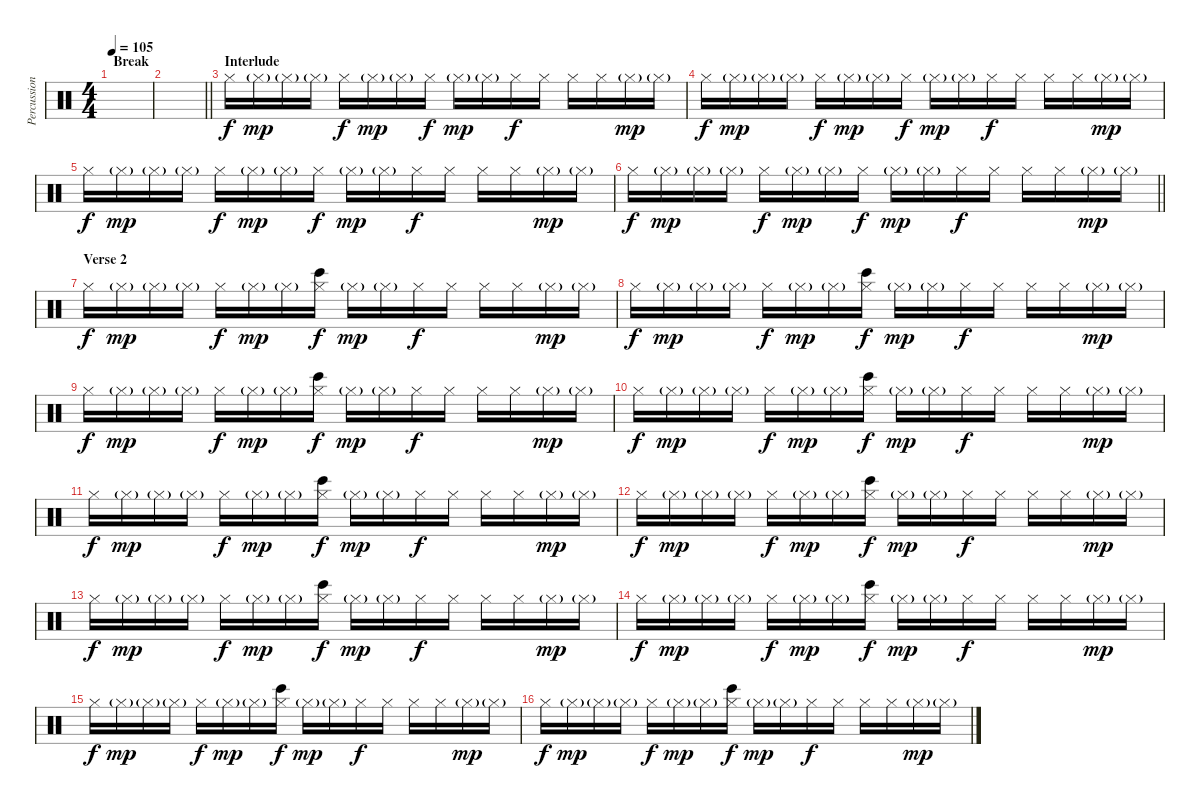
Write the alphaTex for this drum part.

\track ("Percussions and Arrangements" "Percussion") {instrument percussion}
\staff {score}
\articulation defaults
\ts (4 4)
\section ("" "Break")
\tempo 105
\clef neutral
\ks c
|
\barLineRight lightlight
|
\section ("" "Interlude")
"Hi-Hat (closed)".16{dy f} "Hi-Hat (closed)"{g}.16{dy mp} "Hi-Hat (closed)"{g}.16 "Hi-Hat (closed)"{g}.16 "Hi-Hat (closed)".16{dy f} "Hi-Hat (closed)"{g}.16{dy mp} "Hi-Hat (closed)"{g}.16 "Hi-Hat (closed)".16{dy f} "Hi-Hat (closed)"{g}.16{dy mp} "Hi-Hat (closed)"{g}.16 "Hi-Hat (closed)".16{dy f} "Hi-Hat (closed)".16 "Hi-Hat (closed)".16 "Hi-Hat (closed)".16 "Hi-Hat (closed)"{g}.16{dy mp} "Hi-Hat (closed)"{g}.16 |
"Hi-Hat (closed)".16{dy f} "Hi-Hat (closed)"{g}.16{dy mp} "Hi-Hat (closed)"{g}.16 "Hi-Hat (closed)"{g}.16 "Hi-Hat (closed)".16{dy f} "Hi-Hat (closed)"{g}.16{dy mp} "Hi-Hat (closed)"{g}.16 "Hi-Hat (closed)".16{dy f} "Hi-Hat (closed)"{g}.16{dy mp} "Hi-Hat (closed)"{g}.16 "Hi-Hat (closed)".16{dy f} "Hi-Hat (closed)".16 "Hi-Hat (closed)".16 "Hi-Hat (closed)".16 "Hi-Hat (closed)"{g}.16{dy mp} "Hi-Hat (closed)"{g}.16 |
"Hi-Hat (closed)".16{dy f} "Hi-Hat (closed)"{g}.16{dy mp} "Hi-Hat (closed)"{g}.16 "Hi-Hat (closed)"{g}.16 "Hi-Hat (closed)".16{dy f} "Hi-Hat (closed)"{g}.16{dy mp} "Hi-Hat (closed)"{g}.16 "Hi-Hat (closed)".16{dy f} "Hi-Hat (closed)"{g}.16{dy mp} "Hi-Hat (closed)"{g}.16 "Hi-Hat (closed)".16{dy f} "Hi-Hat (closed)".16 "Hi-Hat (closed)".16 "Hi-Hat (closed)".16 "Hi-Hat (closed)"{g}.16{dy mp} "Hi-Hat (closed)"{g}.16 |
\barLineRight lightlight "Hi-Hat (closed)".16{dy f} "Hi-Hat (closed)"{g}.16{dy mp} "Hi-Hat (closed)"{g}.16 "Hi-Hat (closed)"{g}.16 "Hi-Hat (closed)".16{dy f} "Hi-Hat (closed)"{g}.16{dy mp} "Hi-Hat (closed)"{g}.16 "Hi-Hat (closed)".16{dy f} "Hi-Hat (closed)"{g}.16{dy mp} "Hi-Hat (closed)"{g}.16 "Hi-Hat (closed)".16{dy f} "Hi-Hat (closed)".16 "Hi-Hat (closed)".16 "Hi-Hat (closed)".16 "Hi-Hat (closed)"{g}.16{dy mp} "Hi-Hat (closed)"{g}.16
|
\section ("" "Verse 2")
"Hi-Hat (closed)".16{dy f} "Hi-Hat (closed)"{g}.16{dy mp} "Hi-Hat (closed)"{g}.16 "Hi-Hat (closed)"{g}.16 "Hi-Hat (closed)".16{dy f} "Hi-Hat (closed)"{g}.16{dy mp} "Hi-Hat (closed)"{g}.16 ("Hi-Hat (closed)" "Bongo High (hit)").16{dy f} "Hi-Hat (closed)"{g}.16{dy mp} "Hi-Hat (closed)"{g}.16 "Hi-Hat (closed)".16{dy f} "Hi-Hat (closed)".16 "Hi-Hat (closed)".16 "Hi-Hat (closed)".16 "Hi-Hat (closed)"{g}.16{dy mp} "Hi-Hat (closed)"{g}.16 |
"Hi-Hat (closed)".16{dy f} "Hi-Hat (closed)"{g}.16{dy mp} "Hi-Hat (closed)"{g}.16 "Hi-Hat (closed)"{g}.16 "Hi-Hat (closed)".16{dy f} "Hi-Hat (closed)"{g}.16{dy mp} "Hi-Hat (closed)"{g}.16 ("Hi-Hat (closed)" "Bongo High (hit)").16{dy f} "Hi-Hat (closed)"{g}.16{dy mp} "Hi-Hat (closed)"{g}.16 "Hi-Hat (closed)".16{dy f} "Hi-Hat (closed)".16 "Hi-Hat (closed)".16 "Hi-Hat (closed)".16 "Hi-Hat (closed)"{g}.16{dy mp} "Hi-Hat (closed)"{g}.16 |
"Hi-Hat (closed)".16{dy f} "Hi-Hat (closed)"{g}.16{dy mp} "Hi-Hat (closed)"{g}.16 "Hi-Hat (closed)"{g}.16 "Hi-Hat (closed)".16{dy f} "Hi-Hat (closed)"{g}.16{dy mp} "Hi-Hat (closed)"{g}.16 ("Hi-Hat (closed)" "Bongo High (hit)").16{dy f} "Hi-Hat (closed)"{g}.16{dy mp} "Hi-Hat (closed)"{g}.16 "Hi-Hat (closed)".16{dy f} "Hi-Hat (closed)".16 "Hi-Hat (closed)".16 "Hi-Hat (closed)".16 "Hi-Hat (closed)"{g}.16{dy mp} "Hi-Hat (closed)"{g}.16 |
"Hi-Hat (closed)".16{dy f} "Hi-Hat (closed)"{g}.16{dy mp} "Hi-Hat (closed)"{g}.16 "Hi-Hat (closed)"{g}.16 "Hi-Hat (closed)".16{dy f} "Hi-Hat (closed)"{g}.16{dy mp} "Hi-Hat (closed)"{g}.16 ("Hi-Hat (closed)" "Bongo High (hit)").16{dy f} "Hi-Hat (closed)"{g}.16{dy mp} "Hi-Hat (closed)"{g}.16 "Hi-Hat (closed)".16{dy f} "Hi-Hat (closed)".16 "Hi-Hat (closed)".16 "Hi-Hat (closed)".16 "Hi-Hat (closed)"{g}.16{dy mp} "Hi-Hat (closed)"{g}.16 |
"Hi-Hat (closed)".16{dy f} "Hi-Hat (closed)"{g}.16{dy mp} "Hi-Hat (closed)"{g}.16 "Hi-Hat (closed)"{g}.16 "Hi-Hat (closed)".16{dy f} "Hi-Hat (closed)"{g}.16{dy mp} "Hi-Hat (closed)"{g}.16 ("Hi-Hat (closed)" "Bongo High (hit)").16{dy f} "Hi-Hat (closed)"{g}.16{dy mp} "Hi-Hat (closed)"{g}.16 "Hi-Hat (closed)".16{dy f} "Hi-Hat (closed)".16 "Hi-Hat (closed)".16 "Hi-Hat (closed)".16 "Hi-Hat (closed)"{g}.16{dy mp} "Hi-Hat (closed)"{g}.16 |
"Hi-Hat (closed)".16{dy f} "Hi-Hat (closed)"{g}.16{dy mp} "Hi-Hat (closed)"{g}.16 "Hi-Hat (closed)"{g}.16 "Hi-Hat (closed)".16{dy f} "Hi-Hat (closed)"{g}.16{dy mp} "Hi-Hat (closed)"{g}.16 ("Hi-Hat (closed)" "Bongo High (hit)").16{dy f} "Hi-Hat (closed)"{g}.16{dy mp} "Hi-Hat (closed)"{g}.16 "Hi-Hat (closed)".16{dy f} "Hi-Hat (closed)".16 "Hi-Hat (closed)".16 "Hi-Hat (closed)".16 "Hi-Hat (closed)"{g}.16{dy mp} "Hi-Hat (closed)"{g}.16 |
"Hi-Hat (closed)".16{dy f} "Hi-Hat (closed)"{g}.16{dy mp} "Hi-Hat (closed)"{g}.16 "Hi-Hat (closed)"{g}.16 "Hi-Hat (closed)".16{dy f} "Hi-Hat (closed)"{g}.16{dy mp} "Hi-Hat (closed)"{g}.16 ("Hi-Hat (closed)" "Bongo High (hit)").16{dy f} "Hi-Hat (closed)"{g}.16{dy mp} "Hi-Hat (closed)"{g}.16 "Hi-Hat (closed)".16{dy f} "Hi-Hat (closed)".16 "Hi-Hat (closed)".16 "Hi-Hat (closed)".16 "Hi-Hat (closed)"{g}.16{dy mp} "Hi-Hat (closed)"{g}.16 |
"Hi-Hat (closed)".16{dy f} "Hi-Hat (closed)"{g}.16{dy mp} "Hi-Hat (closed)"{g}.16 "Hi-Hat (closed)"{g}.16 "Hi-Hat (closed)".16{dy f} "Hi-Hat (closed)"{g}.16{dy mp} "Hi-Hat (closed)"{g}.16 ("Hi-Hat (closed)" "Bongo High (hit)").16{dy f} "Hi-Hat (closed)"{g}.16{dy mp} "Hi-Hat (closed)"{g}.16 "Hi-Hat (closed)".16{dy f} "Hi-Hat (closed)".16 "Hi-Hat (closed)".16 "Hi-Hat (closed)".16 "Hi-Hat (closed)"{g}.16{dy mp} "Hi-Hat (closed)"{g}.16 |
"Hi-Hat (closed)".16{dy f} "Hi-Hat (closed)"{g}.16{dy mp} "Hi-Hat (closed)"{g}.16 "Hi-Hat (closed)"{g}.16 "Hi-Hat (closed)".16{dy f} "Hi-Hat (closed)"{g}.16{dy mp} "Hi-Hat (closed)"{g}.16 ("Hi-Hat (closed)" "Bongo High (hit)").16{dy f} "Hi-Hat (closed)"{g}.16{dy mp} "Hi-Hat (closed)"{g}.16 "Hi-Hat (closed)".16{dy f} "Hi-Hat (closed)".16 "Hi-Hat (closed)".16 "Hi-Hat (closed)".16 "Hi-Hat (closed)"{g}.16{dy mp} "Hi-Hat (closed)"{g}.16 |
"Hi-Hat (closed)".16{dy f} "Hi-Hat (closed)"{g}.16{dy mp} "Hi-Hat (closed)"{g}.16 "Hi-Hat (closed)"{g}.16 "Hi-Hat (closed)".16{dy f} "Hi-Hat (closed)"{g}.16{dy mp} "Hi-Hat (closed)"{g}.16 ("Hi-Hat (closed)" "Bongo High (hit)").16{dy f} "Hi-Hat (closed)"{g}.16{dy mp} "Hi-Hat (closed)"{g}.16 "Hi-Hat (closed)".16{dy f} "Hi-Hat (closed)".16 "Hi-Hat (closed)".16 "Hi-Hat (closed)".16 "Hi-Hat (closed)"{g}.16{dy mp} "Hi-Hat (closed)"{g}.16
